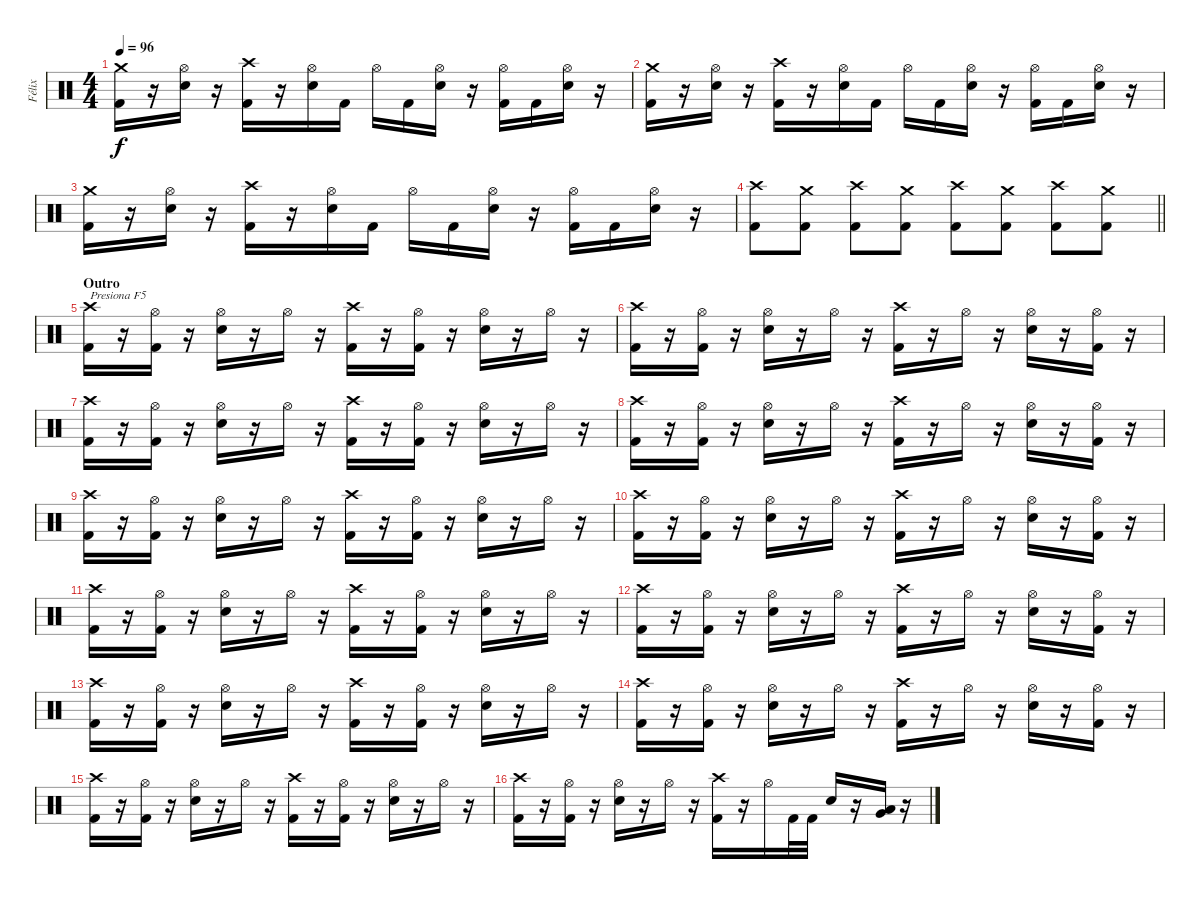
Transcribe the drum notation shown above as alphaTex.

\track ("Félix" "Félix") {instrument percussion}
\staff {score}
\articulation defaults
\ts (4 4)
\tempo 96
\clef neutral
\ks c
("Crash medium (hit)" "Kick (hit) 2").16{dy f} r.16 ("Hi-Hat (open)" "Snare (hit) 2").16 r.16 ("Crash high (hit)" "Kick (hit) 2").16 r.16 ("Hi-Hat (open)" "Snare (hit) 2").16 "Kick (hit) 2".16 "Hi-Hat (open)".16 "Kick (hit) 2".16 ("Hi-Hat (open)" "Snare (hit) 2").16 r.16 ("Hi-Hat (open)" "Kick (hit) 2").16 "Kick (hit) 2".16 ("Hi-Hat (open)" "Snare (hit) 2").16 r.16 |
("Crash medium (hit)" "Kick (hit) 2").16 r.16 ("Hi-Hat (open)" "Snare (hit) 2").16 r.16 ("Crash high (hit)" "Kick (hit) 2").16 r.16 ("Hi-Hat (open)" "Snare (hit) 2").16 "Kick (hit) 2".16 "Hi-Hat (open)".16 "Kick (hit) 2".16 ("Hi-Hat (open)" "Snare (hit) 2").16 r.16 ("Hi-Hat (open)" "Kick (hit) 2").16 "Kick (hit) 2".16 ("Hi-Hat (open)" "Snare (hit) 2").16 r.16 |
("Crash medium (hit)" "Kick (hit) 2").16 r.16 ("Hi-Hat (open)" "Snare (hit) 2").16 r.16 ("Crash high (hit)" "Kick (hit) 2").16 r.16 ("Hi-Hat (open)" "Snare (hit) 2").16 "Kick (hit) 2".16 "Hi-Hat (open)".16 "Kick (hit) 2".16 ("Hi-Hat (open)" "Snare (hit) 2").16 r.16 ("Hi-Hat (open)" "Kick (hit) 2").16 "Kick (hit) 2".16 ("Hi-Hat (open)" "Snare (hit) 2").16 r.16 |
\barLineRight lightlight
("Crash high (hit)" "Kick (hit) 2").8 ("Crash medium (hit)" "Kick (hit) 2").8 ("Crash high (hit)" "Kick (hit) 2").8 ("Crash medium (hit)" "Kick (hit) 2").8 ("Crash high (hit)" "Kick (hit) 2").8 ("Crash medium (hit)" "Kick (hit) 2").8 ("Crash high (hit)" "Kick (hit) 2").8 ("Crash medium (hit)" "Kick (hit) 2").8 |
\section ("" "Outro")
("Crash high (hit)" "Kick (hit) 2").16{txt "Presiona F5"} r.16 ("Hi-Hat (open)" "Kick (hit) 2").16 r.16 ("Hi-Hat (open)" "Snare (hit) 2").16 r.16 "Hi-Hat (open)".16 r.16 ("Crash high (hit)" "Kick (hit) 2").16 r.16 ("Hi-Hat (open)" "Kick (hit) 2").16 r.16 ("Hi-Hat (open)" "Snare (hit) 2").16 r.16 "Hi-Hat (open)".16 r.16 |
("Crash high (hit)" "Kick (hit) 2").16 r.16 ("Hi-Hat (open)" "Kick (hit) 2").16 r.16 ("Hi-Hat (open)" "Snare (hit) 2").16 r.16 "Hi-Hat (open)".16 r.16 ("Crash high (hit)" "Kick (hit) 2").16 r.16 "Hi-Hat (open)".16 r.16 ("Hi-Hat (open)" "Snare (hit) 2").16 r.16 ("Hi-Hat (open)" "Kick (hit) 2").16 r.16 |
("Crash high (hit)" "Kick (hit) 2").16 r.16 ("Hi-Hat (open)" "Kick (hit) 2").16 r.16 ("Hi-Hat (open)" "Snare (hit) 2").16 r.16 "Hi-Hat (open)".16 r.16 ("Crash high (hit)" "Kick (hit) 2").16 r.16 ("Hi-Hat (open)" "Kick (hit) 2").16 r.16 ("Hi-Hat (open)" "Snare (hit) 2").16 r.16 "Hi-Hat (open)".16 r.16 |
("Crash high (hit)" "Kick (hit) 2").16 r.16 ("Hi-Hat (open)" "Kick (hit) 2").16 r.16 ("Hi-Hat (open)" "Snare (hit) 2").16 r.16 "Hi-Hat (open)".16 r.16 ("Crash high (hit)" "Kick (hit) 2").16 r.16 "Hi-Hat (open)".16 r.16 ("Hi-Hat (open)" "Snare (hit) 2").16 r.16 ("Hi-Hat (open)" "Kick (hit) 2").16 r.16 |
("Crash high (hit)" "Kick (hit) 2").16 r.16 ("Hi-Hat (open)" "Kick (hit) 2").16 r.16 ("Hi-Hat (open)" "Snare (hit) 2").16 r.16 "Hi-Hat (open)".16 r.16 ("Crash high (hit)" "Kick (hit) 2").16 r.16 ("Hi-Hat (open)" "Kick (hit) 2").16 r.16 ("Hi-Hat (open)" "Snare (hit) 2").16 r.16 "Hi-Hat (open)".16 r.16 |
("Crash high (hit)" "Kick (hit) 2").16 r.16 ("Hi-Hat (open)" "Kick (hit) 2").16 r.16 ("Hi-Hat (open)" "Snare (hit) 2").16 r.16 "Hi-Hat (open)".16 r.16 ("Crash high (hit)" "Kick (hit) 2").16 r.16 "Hi-Hat (open)".16 r.16 ("Hi-Hat (open)" "Snare (hit) 2").16 r.16 ("Hi-Hat (open)" "Kick (hit) 2").16 r.16 |
("Crash high (hit)" "Kick (hit) 2").16 r.16 ("Hi-Hat (open)" "Kick (hit) 2").16 r.16 ("Hi-Hat (open)" "Snare (hit) 2").16 r.16 "Hi-Hat (open)".16 r.16 ("Crash high (hit)" "Kick (hit) 2").16 r.16 ("Hi-Hat (open)" "Kick (hit) 2").16 r.16 ("Hi-Hat (open)" "Snare (hit) 2").16 r.16 "Hi-Hat (open)".16 r.16 |
("Crash high (hit)" "Kick (hit) 2").16 r.16 ("Hi-Hat (open)" "Kick (hit) 2").16 r.16 ("Hi-Hat (open)" "Snare (hit) 2").16 r.16 "Hi-Hat (open)".16 r.16 ("Crash high (hit)" "Kick (hit) 2").16 r.16 "Hi-Hat (open)".16 r.16 ("Hi-Hat (open)" "Snare (hit) 2").16 r.16 ("Hi-Hat (open)" "Kick (hit) 2").16 r.16 |
("Crash high (hit)" "Kick (hit) 2").16 r.16 ("Hi-Hat (open)" "Kick (hit) 2").16 r.16 ("Hi-Hat (open)" "Snare (hit) 2").16 r.16 "Hi-Hat (open)".16 r.16 ("Crash high (hit)" "Kick (hit) 2").16 r.16 ("Hi-Hat (open)" "Kick (hit) 2").16 r.16 ("Hi-Hat (open)" "Snare (hit) 2").16 r.16 "Hi-Hat (open)".16 r.16 |
("Crash high (hit)" "Kick (hit) 2").16 r.16 ("Hi-Hat (open)" "Kick (hit) 2").16 r.16 ("Hi-Hat (open)" "Snare (hit) 2").16 r.16 "Hi-Hat (open)".16 r.16 ("Crash high (hit)" "Kick (hit) 2").16 r.16 "Hi-Hat (open)".16 r.16 ("Hi-Hat (open)" "Snare (hit) 2").16 r.16 ("Hi-Hat (open)" "Kick (hit) 2").16 r.16 |
("Crash high (hit)" "Kick (hit) 2").16 r.16 ("Hi-Hat (open)" "Kick (hit) 2").16 r.16 ("Hi-Hat (open)" "Snare (hit) 2").16 r.16 "Hi-Hat (open)".16 r.16 ("Crash high (hit)" "Kick (hit) 2").16 r.16 ("Hi-Hat (open)" "Kick (hit) 2").16 r.16 ("Hi-Hat (open)" "Snare (hit) 2").16 r.16 "Hi-Hat (open)".16 r.16 |
("Crash high (hit)" "Kick (hit) 2").16 r.16 ("Hi-Hat (open)" "Kick (hit) 2").16 r.16 ("Hi-Hat (open)" "Snare (hit) 2").16 r.16 "Hi-Hat (open)".16 r.16 ("Crash high (hit)" "Kick (hit) 2").16 r.16 "Hi-Hat (open)".16 "Kick (hit) 2".32 "Kick (hit) 2".32 "Snare (hit) 2".16 r.16 ("Very Low Tom (hit)" "Low Floor Tom (hit)").16 r.16
